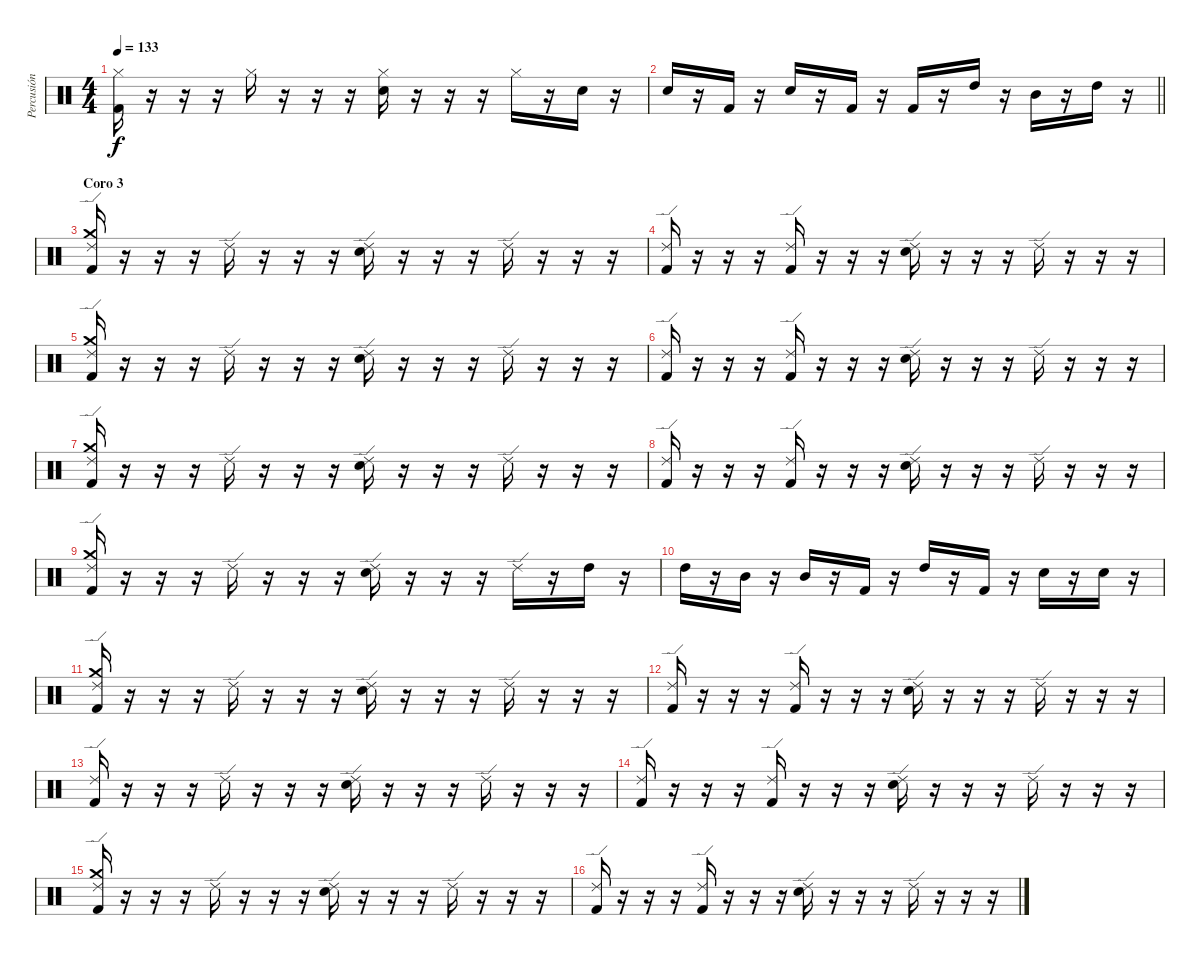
\track ("Percusión" "Percusión") {instrument percussion}
\staff {score}
\articulation defaults
\ts (4 4)
\tempo 133
\clef neutral
\ks c
("Hi-Hat (closed)" "Kick (hit) 2").16{dy f} r.16 r.16 r.16 "Hi-Hat (closed)".16 r.16 r.16 r.16 ("Hi-Hat (closed)" "Snare (hit) 2").16 r.16 r.16 r.16 "Hi-Hat (closed)".16 r.16 "Snare (hit) 2".16 r.16 |
\barLineRight lightlight "Snare (hit) 2".16
r.16 "Kick (hit) 2".16 r.16 "Snare (hit) 2".16 r.16 "Kick (hit) 2".16 r.16 "Kick (hit) 2".16 r.16 "High Tom (hit)".16 r.16 "Mid Tom (hit)".16 r.16 "High Tom (hit)".16 r.16 |
\section ("" "Coro 3")
("Crash medium (hit)" "Ride (edge) 2" "Kick (hit) 2").16 r.16 r.16 r.16 "Ride (edge) 2".16 r.16 r.16 r.16 ("Ride (edge) 2" "Snare (hit) 2").16 r.16 r.16 r.16 "Ride (edge) 2".16 r.16 r.16 r.16 |
("Ride (edge) 2" "Kick (hit) 2").16 r.16 r.16 r.16 ("Ride (edge) 2" "Kick (hit) 2").16 r.16 r.16 r.16 ("Ride (edge) 2" "Snare (hit) 2").16 r.16 r.16 r.16 "Ride (edge) 2".16 r.16 r.16 r.16 |
("Crash medium (hit)" "Ride (edge) 2" "Kick (hit) 2").16 r.16 r.16 r.16 "Ride (edge) 2".16 r.16 r.16 r.16 ("Ride (edge) 2" "Snare (hit) 2").16 r.16 r.16 r.16 "Ride (edge) 2".16 r.16 r.16 r.16 |
("Ride (edge) 2" "Kick (hit) 2").16 r.16 r.16 r.16 ("Ride (edge) 2" "Kick (hit) 2").16 r.16 r.16 r.16 ("Ride (edge) 2" "Snare (hit) 2").16 r.16 r.16 r.16 "Ride (edge) 2".16 r.16 r.16 r.16 |
("Crash medium (hit)" "Ride (edge) 2" "Kick (hit) 2").16 r.16 r.16 r.16 "Ride (edge) 2".16 r.16 r.16 r.16 ("Ride (edge) 2" "Snare (hit) 2").16 r.16 r.16 r.16 "Ride (edge) 2".16 r.16 r.16 r.16 |
("Ride (edge) 2" "Kick (hit) 2").16 r.16 r.16 r.16 ("Ride (edge) 2" "Kick (hit) 2").16 r.16 r.16 r.16 ("Ride (edge) 2" "Snare (hit) 2").16 r.16 r.16 r.16 "Ride (edge) 2".16 r.16 r.16 r.16 |
("Crash medium (hit)" "Ride (edge) 2" "Kick (hit) 2").16 r.16 r.16 r.16 "Ride (edge) 2".16 r.16 r.16 r.16 ("Ride (edge) 2" "Snare (hit) 2").16 r.16 r.16 r.16 "Ride (edge) 2".16 r.16 "High Tom (hit)".16 r.16 |
"High Tom (hit)".16 r.16 "Mid Tom (hit)".16 r.16 "Mid Tom (hit)".16 r.16 "Kick (hit) 2".16 r.16 "High Tom (hit)".16 r.16 "Kick (hit) 2".16 r.16 "Snare (hit) 2".16 r.16 "Snare (hit) 2".16 r.16 |
("Crash medium (hit)" "Ride (edge) 2" "Kick (hit) 2").16 r.16 r.16 r.16 "Ride (edge) 2".16 r.16 r.16 r.16 ("Ride (edge) 2" "Snare (hit) 2").16 r.16 r.16 r.16 "Ride (edge) 2".16 r.16 r.16 r.16 |
("Ride (edge) 2" "Kick (hit) 2").16 r.16 r.16 r.16 ("Ride (edge) 2" "Kick (hit) 2").16 r.16 r.16 r.16 ("Ride (edge) 2" "Snare (hit) 2").16 r.16 r.16 r.16 "Ride (edge) 2".16 r.16 r.16 r.16 |
("Ride (edge) 2" "Kick (hit) 2").16 r.16 r.16 r.16 "Ride (edge) 2".16 r.16 r.16 r.16 ("Ride (edge) 2" "Snare (hit) 2").16 r.16 r.16 r.16 "Ride (edge) 2".16 r.16 r.16 r.16 |
("Ride (edge) 2" "Kick (hit) 2").16 r.16 r.16 r.16 ("Ride (edge) 2" "Kick (hit) 2").16 r.16 r.16 r.16 ("Ride (edge) 2" "Snare (hit) 2").16 r.16 r.16 r.16 "Ride (edge) 2".16 r.16 r.16 r.16 |
("Crash medium (hit)" "Ride (edge) 2" "Kick (hit) 2").16 r.16 r.16 r.16 "Ride (edge) 2".16 r.16 r.16 r.16 ("Ride (edge) 2" "Snare (hit) 2").16 r.16 r.16 r.16 "Ride (edge) 2".16 r.16 r.16 r.16 |
("Ride (edge) 2" "Kick (hit) 2").16 r.16 r.16 r.16 ("Ride (edge) 2" "Kick (hit) 2").16 r.16 r.16 r.16 ("Ride (edge) 2" "Snare (hit) 2").16 r.16 r.16 r.16 "Ride (edge) 2".16 r.16 r.16 r.16
